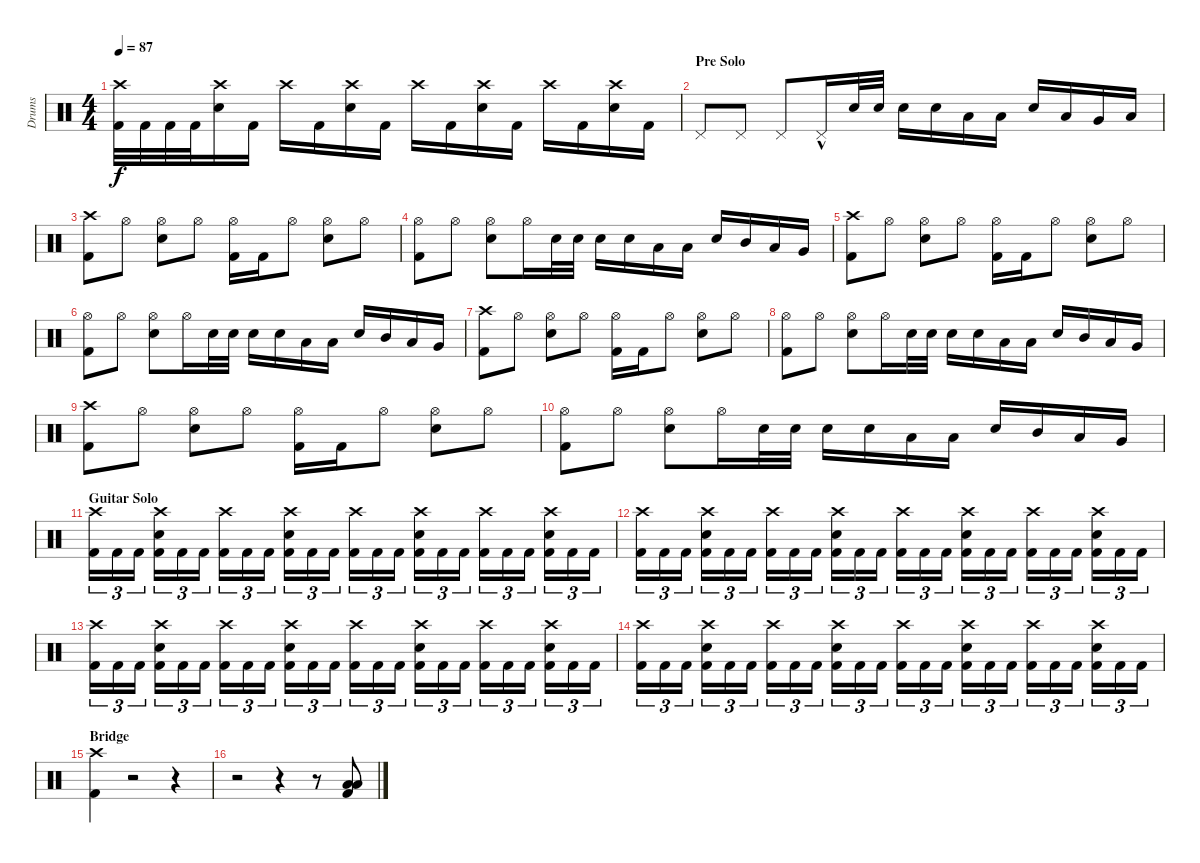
\track ("Drums" "Drums") {instrument percussion}
\staff {score}
\articulation defaults
\ts (4 4)
\tempo 87
\clef neutral
\ks c
("Crash high (hit)" "Kick (hit) 2").32{dy f} "Kick (hit) 2".32 "Kick (hit) 2".32 "Kick (hit) 2".32 ("Crash high (hit)" "Electric Snare (hit)").16 "Kick (hit) 2".16 "Crash high (hit)".16 "Kick (hit) 2".16 ("Crash high (hit)" "Electric Snare (hit)").16 "Kick (hit) 2".16 "Crash high (hit)".16 "Kick (hit) 2".16 ("Crash high (hit)" "Electric Snare (hit)").16 "Kick (hit) 2".16 "Crash high (hit)".16 "Kick (hit) 2".16 ("Crash high (hit)" "Electric Snare (hit)").16 "Kick (hit) 2".16 |
\section ("" "Pre Solo")
"Pedal Hi-Hat (hit)".8 "Pedal Hi-Hat (hit)".8 "Pedal Hi-Hat (hit)".8 "Pedal Hi-Hat (hit)"{hac}.16 "Electric Snare (hit)".32 "Electric Snare (hit)".32 "Electric Snare (hit)".16 "Electric Snare (hit)".16 "Low Tom (hit)".16 "Low Tom (hit)".16 "Electric Snare (hit)".16 "Low Tom (hit)".16 "Very Low Tom (hit)".16 "Low Floor Tom (hit)".16 |
("Crash high (hit)" "Kick (hit) 2").8 "Hi-Hat (open)".8 ("Hi-Hat (open)" "Electric Snare (hit)").8 "Hi-Hat (open)".8 ("Hi-Hat (open)" "Kick (hit) 2").16 "Kick (hit) 2".16 "Hi-Hat (open)".8 ("Hi-Hat (open)" "Electric Snare (hit)").8 "Hi-Hat (open)".8 |
("Hi-Hat (open)" "Kick (hit) 2").8 "Hi-Hat (open)".8 ("Hi-Hat (open)" "Electric Snare (hit)").8 "Hi-Hat (open)".16 "Electric Snare (hit)".32 "Electric Snare (hit)".32 "Electric Snare (hit)".16 "Electric Snare (hit)".16 "Low Tom (hit)".16 "Low Tom (hit)".16 "Electric Snare (hit)".16 "Mid Tom (hit)".16 "Low Tom (hit)".16 "Very Low Tom (hit)".16 |
("Crash high (hit)" "Kick (hit) 2").8 "Hi-Hat (open)".8 ("Hi-Hat (open)" "Electric Snare (hit)").8 "Hi-Hat (open)".8 ("Hi-Hat (open)" "Kick (hit) 2").16 "Kick (hit) 2".16 "Hi-Hat (open)".8 ("Hi-Hat (open)" "Electric Snare (hit)").8 "Hi-Hat (open)".8 |
("Hi-Hat (open)" "Kick (hit) 2").8 "Hi-Hat (open)".8 ("Hi-Hat (open)" "Electric Snare (hit)").8 "Hi-Hat (open)".16 "Electric Snare (hit)".32 "Electric Snare (hit)".32 "Electric Snare (hit)".16 "Electric Snare (hit)".16 "Low Tom (hit)".16 "Low Tom (hit)".16 "Electric Snare (hit)".16 "Mid Tom (hit)".16 "Low Tom (hit)".16 "Very Low Tom (hit)".16 |
("Crash high (hit)" "Kick (hit) 2").8 "Hi-Hat (open)".8 ("Hi-Hat (open)" "Electric Snare (hit)").8 "Hi-Hat (open)".8 ("Hi-Hat (open)" "Kick (hit) 2").16 "Kick (hit) 2".16 "Hi-Hat (open)".8 ("Hi-Hat (open)" "Electric Snare (hit)").8 "Hi-Hat (open)".8 |
("Hi-Hat (open)" "Kick (hit) 2").8 "Hi-Hat (open)".8 ("Hi-Hat (open)" "Electric Snare (hit)").8 "Hi-Hat (open)".16 "Electric Snare (hit)".32 "Electric Snare (hit)".32 "Electric Snare (hit)".16 "Electric Snare (hit)".16 "Low Tom (hit)".16 "Low Tom (hit)".16 "Electric Snare (hit)".16 "Mid Tom (hit)".16 "Low Tom (hit)".16 "Very Low Tom (hit)".16 |
("Crash high (hit)" "Kick (hit) 2").8 "Hi-Hat (open)".8 ("Hi-Hat (open)" "Electric Snare (hit)").8 "Hi-Hat (open)".8 ("Hi-Hat (open)" "Kick (hit) 2").16 "Kick (hit) 2".16 "Hi-Hat (open)".8 ("Hi-Hat (open)" "Electric Snare (hit)").8 "Hi-Hat (open)".8 |
("Hi-Hat (open)" "Kick (hit) 2").8 "Hi-Hat (open)".8 ("Hi-Hat (open)" "Electric Snare (hit)").8 "Hi-Hat (open)".16 "Electric Snare (hit)".32 "Electric Snare (hit)".32 "Electric Snare (hit)".16 "Electric Snare (hit)".16 "Low Tom (hit)".16 "Low Tom (hit)".16 "Electric Snare (hit)".16 "Mid Tom (hit)".16 "Low Tom (hit)".16 "Very Low Tom (hit)".16 |
\section ("" "Guitar Solo")
("Crash high (hit)" "Kick (hit) 2").16{tu (3 2)} "Kick (hit) 2".16{tu (3 2)} "Kick (hit) 2".16{tu (3 2)} ("Crash high (hit)" "Electric Snare (hit)" "Kick (hit) 2").16{tu (3 2)} "Kick (hit) 2".16{tu (3 2)} "Kick (hit) 2".16{tu (3 2)} ("Crash high (hit)" "Kick (hit) 2").16{tu (3 2)} "Kick (hit) 2".16{tu (3 2)} "Kick (hit) 2".16{tu (3 2)} ("Crash high (hit)" "Electric Snare (hit)" "Kick (hit) 2").16{tu (3 2)} "Kick (hit) 2".16{tu (3 2)} "Kick (hit) 2".16{tu (3 2)} ("Crash high (hit)" "Kick (hit) 2").16{tu (3 2)} "Kick (hit) 2".16{tu (3 2)} "Kick (hit) 2".16{tu (3 2)} ("Crash high (hit)" "Electric Snare (hit)" "Kick (hit) 2").16{tu (3 2)} "Kick (hit) 2".16{tu (3 2)} "Kick (hit) 2".16{tu (3 2)} ("Crash high (hit)" "Kick (hit) 2").16{tu (3 2)} "Kick (hit) 2".16{tu (3 2)} "Kick (hit) 2".16{tu (3 2)} ("Crash high (hit)" "Electric Snare (hit)" "Kick (hit) 2").16{tu (3 2)} "Kick (hit) 2".16{tu (3 2)} "Kick (hit) 2".16{tu (3 2)} |
("Crash high (hit)" "Kick (hit) 2").16{tu (3 2)} "Kick (hit) 2".16{tu (3 2)} "Kick (hit) 2".16{tu (3 2)} ("Crash high (hit)" "Electric Snare (hit)" "Kick (hit) 2").16{tu (3 2)} "Kick (hit) 2".16{tu (3 2)} "Kick (hit) 2".16{tu (3 2)} ("Crash high (hit)" "Kick (hit) 2").16{tu (3 2)} "Kick (hit) 2".16{tu (3 2)} "Kick (hit) 2".16{tu (3 2)} ("Crash high (hit)" "Electric Snare (hit)" "Kick (hit) 2").16{tu (3 2)} "Kick (hit) 2".16{tu (3 2)} "Kick (hit) 2".16{tu (3 2)} ("Crash high (hit)" "Kick (hit) 2").16{tu (3 2)} "Kick (hit) 2".16{tu (3 2)} "Kick (hit) 2".16{tu (3 2)} ("Crash high (hit)" "Electric Snare (hit)" "Kick (hit) 2").16{tu (3 2)} "Kick (hit) 2".16{tu (3 2)} "Kick (hit) 2".16{tu (3 2)} ("Crash high (hit)" "Kick (hit) 2").16{tu (3 2)} "Kick (hit) 2".16{tu (3 2)} "Kick (hit) 2".16{tu (3 2)} ("Crash high (hit)" "Electric Snare (hit)" "Kick (hit) 2").16{tu (3 2)} "Kick (hit) 2".16{tu (3 2)} "Kick (hit) 2".16{tu (3 2)} |
("Crash high (hit)" "Kick (hit) 2").16{tu (3 2)} "Kick (hit) 2".16{tu (3 2)} "Kick (hit) 2".16{tu (3 2)} ("Crash high (hit)" "Electric Snare (hit)" "Kick (hit) 2").16{tu (3 2)} "Kick (hit) 2".16{tu (3 2)} "Kick (hit) 2".16{tu (3 2)} ("Crash high (hit)" "Kick (hit) 2").16{tu (3 2)} "Kick (hit) 2".16{tu (3 2)} "Kick (hit) 2".16{tu (3 2)} ("Crash high (hit)" "Electric Snare (hit)" "Kick (hit) 2").16{tu (3 2)} "Kick (hit) 2".16{tu (3 2)} "Kick (hit) 2".16{tu (3 2)} ("Crash high (hit)" "Kick (hit) 2").16{tu (3 2)} "Kick (hit) 2".16{tu (3 2)} "Kick (hit) 2".16{tu (3 2)} ("Crash high (hit)" "Electric Snare (hit)" "Kick (hit) 2").16{tu (3 2)} "Kick (hit) 2".16{tu (3 2)} "Kick (hit) 2".16{tu (3 2)} ("Crash high (hit)" "Kick (hit) 2").16{tu (3 2)} "Kick (hit) 2".16{tu (3 2)} "Kick (hit) 2".16{tu (3 2)} ("Crash high (hit)" "Electric Snare (hit)" "Kick (hit) 2").16{tu (3 2)} "Kick (hit) 2".16{tu (3 2)} "Kick (hit) 2".16{tu (3 2)} |
("Crash high (hit)" "Kick (hit) 2").16{tu (3 2)} "Kick (hit) 2".16{tu (3 2)} "Kick (hit) 2".16{tu (3 2)} ("Crash high (hit)" "Electric Snare (hit)" "Kick (hit) 2").16{tu (3 2)} "Kick (hit) 2".16{tu (3 2)} "Kick (hit) 2".16{tu (3 2)} ("Crash high (hit)" "Kick (hit) 2").16{tu (3 2)} "Kick (hit) 2".16{tu (3 2)} "Kick (hit) 2".16{tu (3 2)} ("Crash high (hit)" "Electric Snare (hit)" "Kick (hit) 2").16{tu (3 2)} "Kick (hit) 2".16{tu (3 2)} "Kick (hit) 2".16{tu (3 2)} ("Crash high (hit)" "Kick (hit) 2").16{tu (3 2)} "Kick (hit) 2".16{tu (3 2)} "Kick (hit) 2".16{tu (3 2)} ("Crash high (hit)" "Electric Snare (hit)" "Kick (hit) 2").16{tu (3 2)} "Kick (hit) 2".16{tu (3 2)} "Kick (hit) 2".16{tu (3 2)} ("Crash high (hit)" "Kick (hit) 2").16{tu (3 2)} "Kick (hit) 2".16{tu (3 2)} "Kick (hit) 2".16{tu (3 2)} ("Crash high (hit)" "Electric Snare (hit)" "Kick (hit) 2").16{tu (3 2)} "Kick (hit) 2".16{tu (3 2)} "Kick (hit) 2".16{tu (3 2)} |
\section ("" "Bridge")
("Crash high (hit)" "Kick (hit) 2").4 r.2 r.4 |
r.2 r.4 r.8 ("Low Tom (hit)" "Low Floor Tom (hit)" "Kick (hit) 2").8
